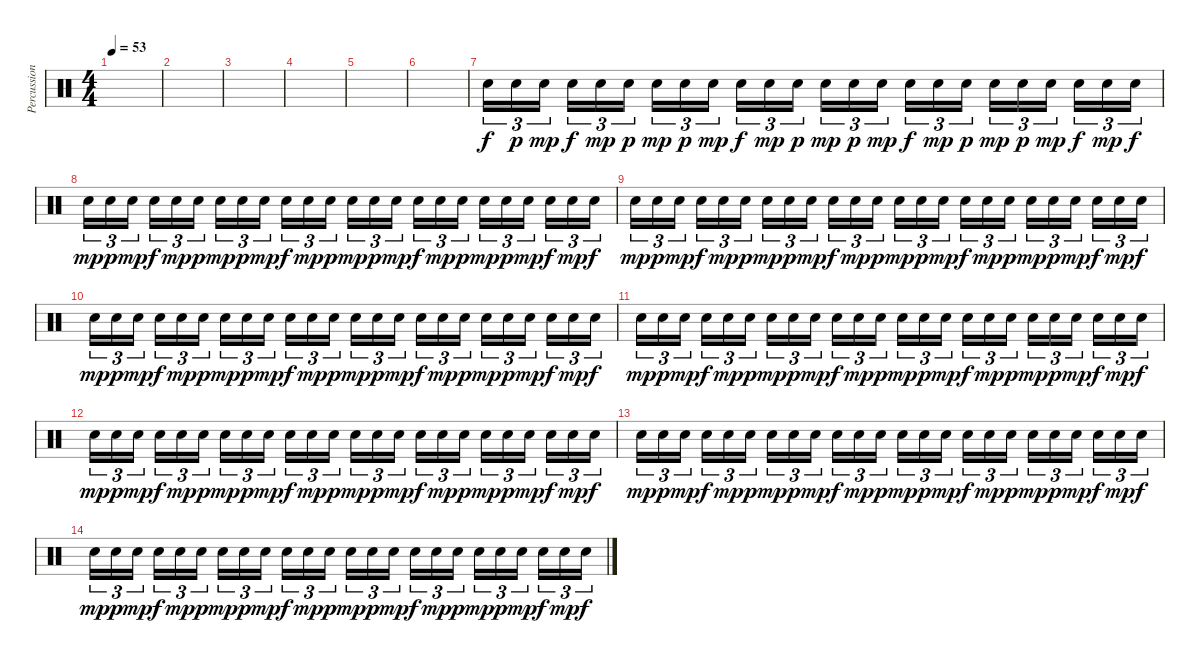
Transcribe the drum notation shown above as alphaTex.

\track ("Percussions" "Percussion") {instrument percussion}
\staff {score}
\articulation defaults
\ts (4 4)
\tempo 53
\clef neutral
\ks c
|
|
|
|
|
|
"Snare (hit) 2".16{tu (3 2)} "Snare (hit) 2".16{tu (3 2) dy p} "Snare (hit) 2".16{tu (3 2) dy mp} "Snare (hit) 2".16{tu (3 2) dy f} "Snare (hit) 2".16{tu (3 2) dy mp} "Snare (hit) 2".16{tu (3 2) dy p} "Snare (hit) 2".16{tu (3 2) dy mp} "Snare (hit) 2".16{tu (3 2) dy p} "Snare (hit) 2".16{tu (3 2) dy mp} "Snare (hit) 2".16{tu (3 2) dy f} "Snare (hit) 2".16{tu (3 2) dy mp} "Snare (hit) 2".16{tu (3 2) dy p} "Snare (hit) 2".16{tu (3 2) dy mp} "Snare (hit) 2".16{tu (3 2) dy p} "Snare (hit) 2".16{tu (3 2) dy mp} "Snare (hit) 2".16{tu (3 2) dy f} "Snare (hit) 2".16{tu (3 2) dy mp} "Snare (hit) 2".16{tu (3 2) dy p} "Snare (hit) 2".16{tu (3 2) dy mp} "Snare (hit) 2".16{tu (3 2) dy p} "Snare (hit) 2".16{tu (3 2) dy mp} "Snare (hit) 2".16{tu (3 2) dy f} "Snare (hit) 2".16{tu (3 2) dy mp} "Snare (hit) 2".16{tu (3 2) dy f} |
"Snare (hit) 2".16{tu (3 2) dy mp} "Snare (hit) 2".16{tu (3 2) dy p} "Snare (hit) 2".16{tu (3 2) dy mp} "Snare (hit) 2".16{tu (3 2) dy f} "Snare (hit) 2".16{tu (3 2) dy mp} "Snare (hit) 2".16{tu (3 2) dy p} "Snare (hit) 2".16{tu (3 2) dy mp} "Snare (hit) 2".16{tu (3 2) dy p} "Snare (hit) 2".16{tu (3 2) dy mp} "Snare (hit) 2".16{tu (3 2) dy f} "Snare (hit) 2".16{tu (3 2) dy mp} "Snare (hit) 2".16{tu (3 2) dy p} "Snare (hit) 2".16{tu (3 2) dy mp} "Snare (hit) 2".16{tu (3 2) dy p} "Snare (hit) 2".16{tu (3 2) dy mp} "Snare (hit) 2".16{tu (3 2) dy f} "Snare (hit) 2".16{tu (3 2) dy mp} "Snare (hit) 2".16{tu (3 2) dy p} "Snare (hit) 2".16{tu (3 2) dy mp} "Snare (hit) 2".16{tu (3 2) dy p} "Snare (hit) 2".16{tu (3 2) dy mp} "Snare (hit) 2".16{tu (3 2) dy f} "Snare (hit) 2".16{tu (3 2) dy mp} "Snare (hit) 2".16{tu (3 2) dy f} |
"Snare (hit) 2".16{tu (3 2) dy mp} "Snare (hit) 2".16{tu (3 2) dy p} "Snare (hit) 2".16{tu (3 2) dy mp} "Snare (hit) 2".16{tu (3 2) dy f} "Snare (hit) 2".16{tu (3 2) dy mp} "Snare (hit) 2".16{tu (3 2) dy p} "Snare (hit) 2".16{tu (3 2) dy mp} "Snare (hit) 2".16{tu (3 2) dy p} "Snare (hit) 2".16{tu (3 2) dy mp} "Snare (hit) 2".16{tu (3 2) dy f} "Snare (hit) 2".16{tu (3 2) dy mp} "Snare (hit) 2".16{tu (3 2) dy p} "Snare (hit) 2".16{tu (3 2) dy mp} "Snare (hit) 2".16{tu (3 2) dy p} "Snare (hit) 2".16{tu (3 2) dy mp} "Snare (hit) 2".16{tu (3 2) dy f} "Snare (hit) 2".16{tu (3 2) dy mp} "Snare (hit) 2".16{tu (3 2) dy p} "Snare (hit) 2".16{tu (3 2) dy mp} "Snare (hit) 2".16{tu (3 2) dy p} "Snare (hit) 2".16{tu (3 2) dy mp} "Snare (hit) 2".16{tu (3 2) dy f} "Snare (hit) 2".16{tu (3 2) dy mp} "Snare (hit) 2".16{tu (3 2) dy f} |
"Snare (hit) 2".16{tu (3 2) dy mp} "Snare (hit) 2".16{tu (3 2) dy p} "Snare (hit) 2".16{tu (3 2) dy mp} "Snare (hit) 2".16{tu (3 2) dy f} "Snare (hit) 2".16{tu (3 2) dy mp} "Snare (hit) 2".16{tu (3 2) dy p} "Snare (hit) 2".16{tu (3 2) dy mp} "Snare (hit) 2".16{tu (3 2) dy p} "Snare (hit) 2".16{tu (3 2) dy mp} "Snare (hit) 2".16{tu (3 2) dy f} "Snare (hit) 2".16{tu (3 2) dy mp} "Snare (hit) 2".16{tu (3 2) dy p} "Snare (hit) 2".16{tu (3 2) dy mp} "Snare (hit) 2".16{tu (3 2) dy p} "Snare (hit) 2".16{tu (3 2) dy mp} "Snare (hit) 2".16{tu (3 2) dy f} "Snare (hit) 2".16{tu (3 2) dy mp} "Snare (hit) 2".16{tu (3 2) dy p} "Snare (hit) 2".16{tu (3 2) dy mp} "Snare (hit) 2".16{tu (3 2) dy p} "Snare (hit) 2".16{tu (3 2) dy mp} "Snare (hit) 2".16{tu (3 2) dy f} "Snare (hit) 2".16{tu (3 2) dy mp} "Snare (hit) 2".16{tu (3 2) dy f} |
"Snare (hit) 2".16{tu (3 2) dy mp} "Snare (hit) 2".16{tu (3 2) dy p} "Snare (hit) 2".16{tu (3 2) dy mp} "Snare (hit) 2".16{tu (3 2) dy f} "Snare (hit) 2".16{tu (3 2) dy mp} "Snare (hit) 2".16{tu (3 2) dy p} "Snare (hit) 2".16{tu (3 2) dy mp} "Snare (hit) 2".16{tu (3 2) dy p} "Snare (hit) 2".16{tu (3 2) dy mp} "Snare (hit) 2".16{tu (3 2) dy f} "Snare (hit) 2".16{tu (3 2) dy mp} "Snare (hit) 2".16{tu (3 2) dy p} "Snare (hit) 2".16{tu (3 2) dy mp} "Snare (hit) 2".16{tu (3 2) dy p} "Snare (hit) 2".16{tu (3 2) dy mp} "Snare (hit) 2".16{tu (3 2) dy f} "Snare (hit) 2".16{tu (3 2) dy mp} "Snare (hit) 2".16{tu (3 2) dy p} "Snare (hit) 2".16{tu (3 2) dy mp} "Snare (hit) 2".16{tu (3 2) dy p} "Snare (hit) 2".16{tu (3 2) dy mp} "Snare (hit) 2".16{tu (3 2) dy f} "Snare (hit) 2".16{tu (3 2) dy mp} "Snare (hit) 2".16{tu (3 2) dy f} |
"Snare (hit) 2".16{tu (3 2) dy mp} "Snare (hit) 2".16{tu (3 2) dy p} "Snare (hit) 2".16{tu (3 2) dy mp} "Snare (hit) 2".16{tu (3 2) dy f} "Snare (hit) 2".16{tu (3 2) dy mp} "Snare (hit) 2".16{tu (3 2) dy p} "Snare (hit) 2".16{tu (3 2) dy mp} "Snare (hit) 2".16{tu (3 2) dy p} "Snare (hit) 2".16{tu (3 2) dy mp} "Snare (hit) 2".16{tu (3 2) dy f} "Snare (hit) 2".16{tu (3 2) dy mp} "Snare (hit) 2".16{tu (3 2) dy p} "Snare (hit) 2".16{tu (3 2) dy mp} "Snare (hit) 2".16{tu (3 2) dy p} "Snare (hit) 2".16{tu (3 2) dy mp} "Snare (hit) 2".16{tu (3 2) dy f} "Snare (hit) 2".16{tu (3 2) dy mp} "Snare (hit) 2".16{tu (3 2) dy p} "Snare (hit) 2".16{tu (3 2) dy mp} "Snare (hit) 2".16{tu (3 2) dy p} "Snare (hit) 2".16{tu (3 2) dy mp} "Snare (hit) 2".16{tu (3 2) dy f} "Snare (hit) 2".16{tu (3 2) dy mp} "Snare (hit) 2".16{tu (3 2) dy f} |
"Snare (hit) 2".16{tu (3 2) dy mp} "Snare (hit) 2".16{tu (3 2) dy p} "Snare (hit) 2".16{tu (3 2) dy mp} "Snare (hit) 2".16{tu (3 2) dy f} "Snare (hit) 2".16{tu (3 2) dy mp} "Snare (hit) 2".16{tu (3 2) dy p} "Snare (hit) 2".16{tu (3 2) dy mp} "Snare (hit) 2".16{tu (3 2) dy p} "Snare (hit) 2".16{tu (3 2) dy mp} "Snare (hit) 2".16{tu (3 2) dy f} "Snare (hit) 2".16{tu (3 2) dy mp} "Snare (hit) 2".16{tu (3 2) dy p} "Snare (hit) 2".16{tu (3 2) dy mp} "Snare (hit) 2".16{tu (3 2) dy p} "Snare (hit) 2".16{tu (3 2) dy mp} "Snare (hit) 2".16{tu (3 2) dy f} "Snare (hit) 2".16{tu (3 2) dy mp} "Snare (hit) 2".16{tu (3 2) dy p} "Snare (hit) 2".16{tu (3 2) dy mp} "Snare (hit) 2".16{tu (3 2) dy p} "Snare (hit) 2".16{tu (3 2) dy mp} "Snare (hit) 2".16{tu (3 2) dy f} "Snare (hit) 2".16{tu (3 2) dy mp} "Snare (hit) 2".16{tu (3 2) dy f} |
"Snare (hit) 2".16{tu (3 2) dy mp} "Snare (hit) 2".16{tu (3 2) dy p} "Snare (hit) 2".16{tu (3 2) dy mp} "Snare (hit) 2".16{tu (3 2) dy f} "Snare (hit) 2".16{tu (3 2) dy mp} "Snare (hit) 2".16{tu (3 2) dy p} "Snare (hit) 2".16{tu (3 2) dy mp} "Snare (hit) 2".16{tu (3 2) dy p} "Snare (hit) 2".16{tu (3 2) dy mp} "Snare (hit) 2".16{tu (3 2) dy f} "Snare (hit) 2".16{tu (3 2) dy mp} "Snare (hit) 2".16{tu (3 2) dy p} "Snare (hit) 2".16{tu (3 2) dy mp} "Snare (hit) 2".16{tu (3 2) dy p} "Snare (hit) 2".16{tu (3 2) dy mp} "Snare (hit) 2".16{tu (3 2) dy f} "Snare (hit) 2".16{tu (3 2) dy mp} "Snare (hit) 2".16{tu (3 2) dy p} "Snare (hit) 2".16{tu (3 2) dy mp} "Snare (hit) 2".16{tu (3 2) dy p} "Snare (hit) 2".16{tu (3 2) dy mp} "Snare (hit) 2".16{tu (3 2) dy f} "Snare (hit) 2".16{tu (3 2) dy mp} "Snare (hit) 2".16{tu (3 2) dy f}
